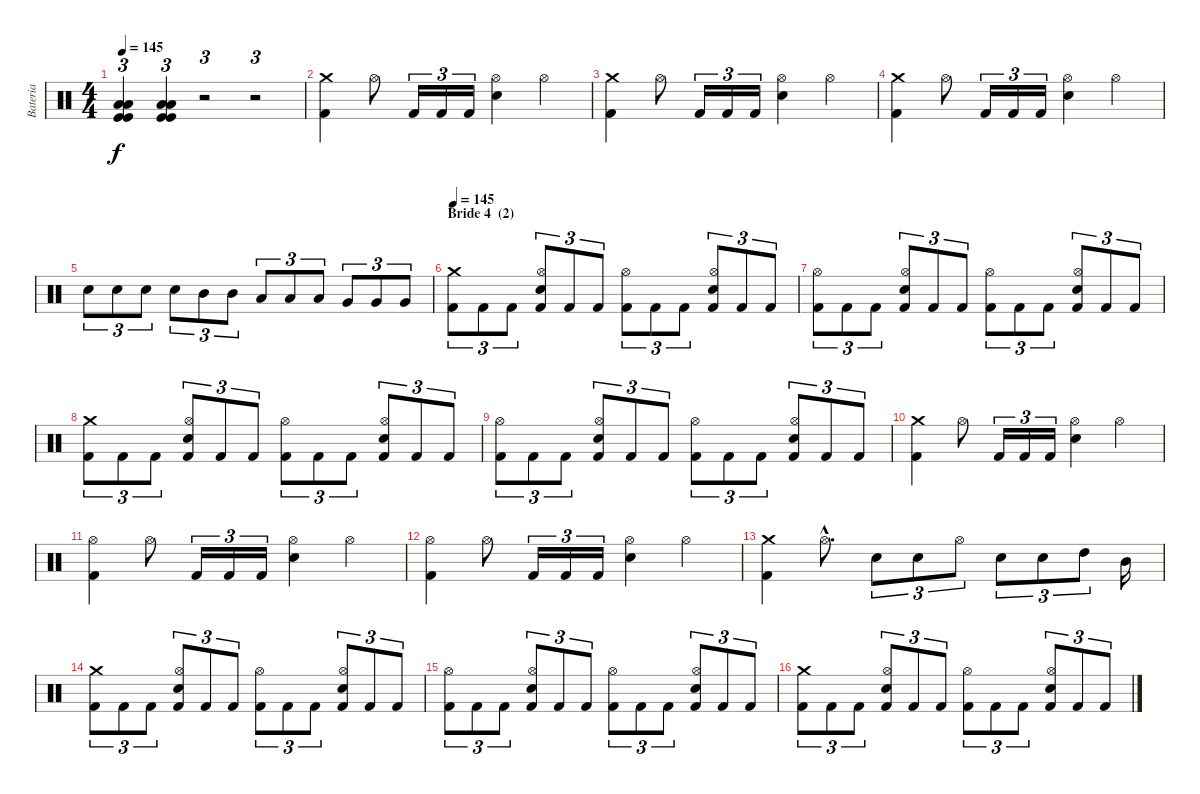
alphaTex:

\track ("Bateria" "Bateria") {instrument percussion}
\staff {score}
\articulation defaults
\ts (4 4)
\tempo 145
\clef neutral
\ks c
("Kick (hit)" "Low Tom (hit)" "Kick (hit)" "Low Floor Tom (hit)").4{tu (3 2) dy f} ("Kick (hit)" "Low Tom (hit)" "Kick (hit)" "Low Floor Tom (hit)").4{tu (3 2)} r.2{tu (3 2)} r.2{tu (3 2)} |
("Crash medium (hit)" "Kick (hit) 2").4 "Hi-Hat (open)".8 "Kick (hit) 2".16{tu (3 2)} "Kick (hit) 2".16{tu (3 2)} "Kick (hit) 2".16{tu (3 2)} ("Hi-Hat (open)" "Snare (hit) 2").4 "Hi-Hat (open)".4 |
("Crash medium (hit)" "Kick (hit) 2").4 "Hi-Hat (open)".8 "Kick (hit) 2".16{tu (3 2)} "Kick (hit) 2".16{tu (3 2)} "Kick (hit) 2".16{tu (3 2)} ("Hi-Hat (open)" "Snare (hit) 2").4 "Hi-Hat (open)".4 |
("Crash medium (hit)" "Kick (hit) 2").4 "Hi-Hat (open)".8 "Kick (hit) 2".16{tu (3 2)} "Kick (hit) 2".16{tu (3 2)} "Kick (hit) 2".16{tu (3 2)} ("Hi-Hat (open)" "Snare (hit) 2").4 "Hi-Hat (open)".4 |
"Snare (hit) 2".8{tu (3 2)} "Snare (hit) 2".8{tu (3 2)} "Snare (hit) 2".8{tu (3 2)} "Snare (hit) 2".8{tu (3 2)} "Mid Tom (hit)".8{tu (3 2)} "Mid Tom (hit)".8{tu (3 2)} "Low Tom (hit)".8{tu (3 2)} "Low Tom (hit)".8{tu (3 2)} "Low Tom (hit)".8{tu (3 2)} "Very Low Tom (hit)".8{tu (3 2)} "Very Low Tom (hit)".8{tu (3 2)} "Very Low Tom (hit)".8{tu (3 2)} |
\section ("" "Bride 4  (2)")
\tempo 145
("Kick (hit) 2" "Crash medium (hit)").8{tu (3 2)} "Kick (hit) 2".8{tu (3 2)} "Kick (hit) 2".8{tu (3 2)} ("Kick (hit) 2" "Snare (hit) 2" "Hi-Hat (open)").8{tu (3 2)} "Kick (hit) 2".8{tu (3 2)} "Kick (hit) 2".8{tu (3 2)} ("Kick (hit) 2" "Hi-Hat (open)").8{tu (3 2)} "Kick (hit) 2".8{tu (3 2)} "Kick (hit) 2".8{tu (3 2)} ("Kick (hit) 2" "Snare (hit) 2" "Hi-Hat (open)").8{tu (3 2)} "Kick (hit) 2".8{tu (3 2)} "Kick (hit) 2".8{tu (3 2)} |
("Kick (hit) 2" "Hi-Hat (open)").8{tu (3 2)} "Kick (hit) 2".8{tu (3 2)} "Kick (hit) 2".8{tu (3 2)} ("Kick (hit) 2" "Snare (hit) 2" "Hi-Hat (open)").8{tu (3 2)} "Kick (hit) 2".8{tu (3 2)} "Kick (hit) 2".8{tu (3 2)} ("Kick (hit) 2" "Hi-Hat (open)").8{tu (3 2)} "Kick (hit) 2".8{tu (3 2)} "Kick (hit) 2".8{tu (3 2)} ("Kick (hit) 2" "Snare (hit) 2" "Hi-Hat (open)").8{tu (3 2)} "Kick (hit) 2".8{tu (3 2)} "Kick (hit) 2".8{tu (3 2)} |
("Kick (hit) 2" "Crash medium (hit)").8{tu (3 2)} "Kick (hit) 2".8{tu (3 2)} "Kick (hit) 2".8{tu (3 2)} ("Kick (hit) 2" "Snare (hit) 2" "Hi-Hat (open)").8{tu (3 2)} "Kick (hit) 2".8{tu (3 2)} "Kick (hit) 2".8{tu (3 2)} ("Kick (hit) 2" "Hi-Hat (open)").8{tu (3 2)} "Kick (hit) 2".8{tu (3 2)} "Kick (hit) 2".8{tu (3 2)} ("Kick (hit) 2" "Snare (hit) 2" "Hi-Hat (open)").8{tu (3 2)} "Kick (hit) 2".8{tu (3 2)} "Kick (hit) 2".8{tu (3 2)} |
("Kick (hit) 2" "Hi-Hat (open)").8{tu (3 2)} "Kick (hit) 2".8{tu (3 2)} "Kick (hit) 2".8{tu (3 2)} ("Kick (hit) 2" "Snare (hit) 2" "Hi-Hat (open)").8{tu (3 2)} "Kick (hit) 2".8{tu (3 2)} "Kick (hit) 2".8{tu (3 2)} ("Kick (hit) 2" "Hi-Hat (open)").8{tu (3 2)} "Kick (hit) 2".8{tu (3 2)} "Kick (hit) 2".8{tu (3 2)} ("Kick (hit) 2" "Snare (hit) 2" "Hi-Hat (open)").8{tu (3 2)} "Kick (hit) 2".8{tu (3 2)} "Kick (hit) 2".8{tu (3 2)} |
("Crash medium (hit)" "Kick (hit) 2").4 "Hi-Hat (open)".8 "Kick (hit) 2".16{tu (3 2)} "Kick (hit) 2".16{tu (3 2)} "Kick (hit) 2".16{tu (3 2)} ("Hi-Hat (open)" "Snare (hit) 2").4 "Hi-Hat (open)".4 |
("Hi-Hat (open)" "Kick (hit) 2").4 "Hi-Hat (open)".8 "Kick (hit) 2".16{tu (3 2)} "Kick (hit) 2".16{tu (3 2)} "Kick (hit) 2".16{tu (3 2)} ("Hi-Hat (open)" "Snare (hit) 2").4 "Hi-Hat (open)".4 |
("Hi-Hat (open)" "Kick (hit) 2").4 "Hi-Hat (open)".8 "Kick (hit) 2".16{tu (3 2)} "Kick (hit) 2".16{tu (3 2)} "Kick (hit) 2".16{tu (3 2)} ("Hi-Hat (open)" "Snare (hit) 2").4 "Hi-Hat (open)".4 |
("Crash medium (hit)" "Kick (hit) 2").4 "Hi-Hat (open)"{hac}.8{d} "Snare (hit) 2".8{tu (3 2)} "Snare (hit) 2".8{tu (3 2)} "Hi-Hat (open)".8{tu (3 2)} "Snare (hit) 2".8{tu (3 2)} "Snare (hit) 2".8{tu (3 2)} "High Tom (hit)".8{tu (3 2)} "Mid Tom (hit)".16 |
("Kick (hit) 2" "Crash medium (hit)").8{tu (3 2)} "Kick (hit) 2".8{tu (3 2)} "Kick (hit) 2".8{tu (3 2)} ("Kick (hit) 2" "Snare (hit) 2" "Hi-Hat (open)").8{tu (3 2)} "Kick (hit) 2".8{tu (3 2)} "Kick (hit) 2".8{tu (3 2)} ("Kick (hit) 2" "Hi-Hat (open)").8{tu (3 2)} "Kick (hit) 2".8{tu (3 2)} "Kick (hit) 2".8{tu (3 2)} ("Kick (hit) 2" "Snare (hit) 2" "Hi-Hat (open)").8{tu (3 2)} "Kick (hit) 2".8{tu (3 2)} "Kick (hit) 2".8{tu (3 2)} |
("Kick (hit) 2" "Hi-Hat (open)").8{tu (3 2)} "Kick (hit) 2".8{tu (3 2)} "Kick (hit) 2".8{tu (3 2)} ("Kick (hit) 2" "Snare (hit) 2" "Hi-Hat (open)").8{tu (3 2)} "Kick (hit) 2".8{tu (3 2)} "Kick (hit) 2".8{tu (3 2)} ("Kick (hit) 2" "Hi-Hat (open)").8{tu (3 2)} "Kick (hit) 2".8{tu (3 2)} "Kick (hit) 2".8{tu (3 2)} ("Kick (hit) 2" "Snare (hit) 2" "Hi-Hat (open)").8{tu (3 2)} "Kick (hit) 2".8{tu (3 2)} "Kick (hit) 2".8{tu (3 2)} |
("Kick (hit) 2" "Crash medium (hit)").8{tu (3 2)} "Kick (hit) 2".8{tu (3 2)} "Kick (hit) 2".8{tu (3 2)} ("Kick (hit) 2" "Snare (hit) 2" "Hi-Hat (open)").8{tu (3 2)} "Kick (hit) 2".8{tu (3 2)} "Kick (hit) 2".8{tu (3 2)} ("Kick (hit) 2" "Hi-Hat (open)").8{tu (3 2)} "Kick (hit) 2".8{tu (3 2)} "Kick (hit) 2".8{tu (3 2)} ("Kick (hit) 2" "Snare (hit) 2" "Hi-Hat (open)").8{tu (3 2)} "Kick (hit) 2".8{tu (3 2)} "Kick (hit) 2".8{tu (3 2)}
